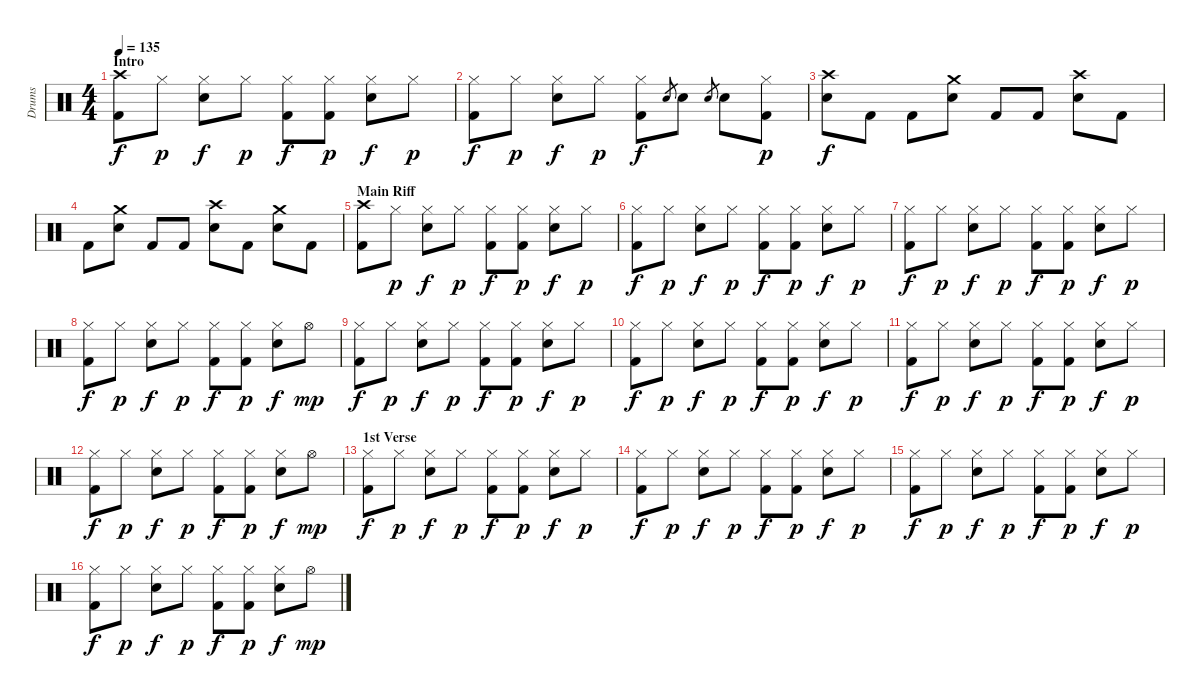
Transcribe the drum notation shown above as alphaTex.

\track ("Drums" "Drums") {instrument percussion}
\staff {score}
\articulation defaults
\ts (4 4)
\section ("" "Intro")
\tempo 135
\clef neutral
\ks c
("Crash high (hit)" "Kick (hit) 2").8{dy f} "Hi-Hat (closed)".8{dy p} ("Hi-Hat (closed)" "Snare (hit) 2").8{dy f} "Hi-Hat (closed)".8{dy p} ("Hi-Hat (closed)" "Kick (hit) 2").8{dy f} ("Hi-Hat (closed)" "Kick (hit) 2").8{dy p} ("Hi-Hat (closed)" "Snare (hit) 2").8{dy f} "Hi-Hat (closed)".8{dy p} |
("Hi-Hat (closed)" "Kick (hit) 2").8{dy f} "Hi-Hat (closed)".8{dy p} ("Hi-Hat (closed)" "Snare (hit) 2").8{dy f} "Hi-Hat (closed)".8{dy p} ("Hi-Hat (closed)" "Kick (hit) 2").8{dy f} "Snare (hit) 2".8{gr} "Snare (hit) 2".8 "Snare (hit) 2".8{gr} "Snare (hit) 2".8 ("Hi-Hat (closed)" "Kick (hit) 2").8{dy p} |
("Crash high (hit)" "Snare (hit) 2").8{dy f} "Kick (hit) 2".8 "Kick (hit) 2".8 ("Crash medium (hit)" "Snare (hit) 2").8 "Kick (hit) 2".8 "Kick (hit) 2".8 ("Crash high (hit)" "Snare (hit) 2").8 "Kick (hit) 2".8 |
"Kick (hit) 2".8 ("Crash medium (hit)" "Snare (hit) 2").8 "Kick (hit) 2".8 "Kick (hit) 2".8 ("Crash high (hit)" "Snare (hit) 2").8 "Kick (hit) 2".8 ("Crash medium (hit)" "Snare (hit) 2").8 "Kick (hit) 2".8 |
\section ("" "Main Riff")
("Crash high (hit)" "Kick (hit) 2").8 "Hi-Hat (closed)".8{dy p} ("Hi-Hat (closed)" "Snare (hit) 2").8{dy f} "Hi-Hat (closed)".8{dy p} ("Hi-Hat (closed)" "Kick (hit) 2").8{dy f} ("Hi-Hat (closed)" "Kick (hit) 2").8{dy p} ("Hi-Hat (closed)" "Snare (hit) 2").8{dy f} "Hi-Hat (closed)".8{dy p} |
("Hi-Hat (closed)" "Kick (hit) 2").8{dy f} "Hi-Hat (closed)".8{dy p} ("Hi-Hat (closed)" "Snare (hit) 2").8{dy f} "Hi-Hat (closed)".8{dy p} ("Hi-Hat (closed)" "Kick (hit) 2").8{dy f} ("Hi-Hat (closed)" "Kick (hit) 2").8{dy p} ("Hi-Hat (closed)" "Snare (hit) 2").8{dy f} "Hi-Hat (closed)".8{dy p} |
("Hi-Hat (closed)" "Kick (hit) 2").8{dy f} "Hi-Hat (closed)".8{dy p} ("Hi-Hat (closed)" "Snare (hit) 2").8{dy f} "Hi-Hat (closed)".8{dy p} ("Hi-Hat (closed)" "Kick (hit) 2").8{dy f} ("Hi-Hat (closed)" "Kick (hit) 2").8{dy p} ("Hi-Hat (closed)" "Snare (hit) 2").8{dy f} "Hi-Hat (closed)".8{dy p} |
("Hi-Hat (closed)" "Kick (hit) 2").8{dy f} "Hi-Hat (closed)".8{dy p} ("Hi-Hat (closed)" "Snare (hit) 2").8{dy f} "Hi-Hat (closed)".8{dy p} ("Hi-Hat (closed)" "Kick (hit) 2").8{dy f} ("Hi-Hat (closed)" "Kick (hit) 2").8{dy p} ("Hi-Hat (closed)" "Snare (hit) 2").8{dy f} "Hi-Hat (open)".8{dy mp} |
("Hi-Hat (closed)" "Kick (hit) 2").8{dy f} "Hi-Hat (closed)".8{dy p} ("Hi-Hat (closed)" "Snare (hit) 2").8{dy f} "Hi-Hat (closed)".8{dy p} ("Hi-Hat (closed)" "Kick (hit) 2").8{dy f} ("Hi-Hat (closed)" "Kick (hit) 2").8{dy p} ("Hi-Hat (closed)" "Snare (hit) 2").8{dy f} "Hi-Hat (closed)".8{dy p} |
("Hi-Hat (closed)" "Kick (hit) 2").8{dy f} "Hi-Hat (closed)".8{dy p} ("Hi-Hat (closed)" "Snare (hit) 2").8{dy f} "Hi-Hat (closed)".8{dy p} ("Hi-Hat (closed)" "Kick (hit) 2").8{dy f} ("Hi-Hat (closed)" "Kick (hit) 2").8{dy p} ("Hi-Hat (closed)" "Snare (hit) 2").8{dy f} "Hi-Hat (closed)".8{dy p} |
("Hi-Hat (closed)" "Kick (hit) 2").8{dy f} "Hi-Hat (closed)".8{dy p} ("Hi-Hat (closed)" "Snare (hit) 2").8{dy f} "Hi-Hat (closed)".8{dy p} ("Hi-Hat (closed)" "Kick (hit) 2").8{dy f} ("Hi-Hat (closed)" "Kick (hit) 2").8{dy p} ("Hi-Hat (closed)" "Snare (hit) 2").8{dy f} "Hi-Hat (closed)".8{dy p} |
("Hi-Hat (closed)" "Kick (hit) 2").8{dy f} "Hi-Hat (closed)".8{dy p} ("Hi-Hat (closed)" "Snare (hit) 2").8{dy f} "Hi-Hat (closed)".8{dy p} ("Hi-Hat (closed)" "Kick (hit) 2").8{dy f} ("Hi-Hat (closed)" "Kick (hit) 2").8{dy p} ("Hi-Hat (closed)" "Snare (hit) 2").8{dy f} "Hi-Hat (open)".8{dy mp} |
\section ("" "1st Verse")
("Hi-Hat (closed)" "Kick (hit) 2").8{dy f} "Hi-Hat (closed)".8{dy p} ("Hi-Hat (closed)" "Snare (hit) 2").8{dy f} "Hi-Hat (closed)".8{dy p} ("Hi-Hat (closed)" "Kick (hit) 2").8{dy f} ("Hi-Hat (closed)" "Kick (hit) 2").8{dy p} ("Hi-Hat (closed)" "Snare (hit) 2").8{dy f} "Hi-Hat (closed)".8{dy p} |
("Hi-Hat (closed)" "Kick (hit) 2").8{dy f} "Hi-Hat (closed)".8{dy p} ("Hi-Hat (closed)" "Snare (hit) 2").8{dy f} "Hi-Hat (closed)".8{dy p} ("Hi-Hat (closed)" "Kick (hit) 2").8{dy f} ("Hi-Hat (closed)" "Kick (hit) 2").8{dy p} ("Hi-Hat (closed)" "Snare (hit) 2").8{dy f} "Hi-Hat (closed)".8{dy p} |
("Hi-Hat (closed)" "Kick (hit) 2").8{dy f} "Hi-Hat (closed)".8{dy p} ("Hi-Hat (closed)" "Snare (hit) 2").8{dy f} "Hi-Hat (closed)".8{dy p} ("Hi-Hat (closed)" "Kick (hit) 2").8{dy f} ("Hi-Hat (closed)" "Kick (hit) 2").8{dy p} ("Hi-Hat (closed)" "Snare (hit) 2").8{dy f} "Hi-Hat (closed)".8{dy p} |
("Hi-Hat (closed)" "Kick (hit) 2").8{dy f} "Hi-Hat (closed)".8{dy p} ("Hi-Hat (closed)" "Snare (hit) 2").8{dy f} "Hi-Hat (closed)".8{dy p} ("Hi-Hat (closed)" "Kick (hit) 2").8{dy f} ("Hi-Hat (closed)" "Kick (hit) 2").8{dy p} ("Hi-Hat (closed)" "Snare (hit) 2").8{dy f} "Hi-Hat (open)".8{dy mp}
